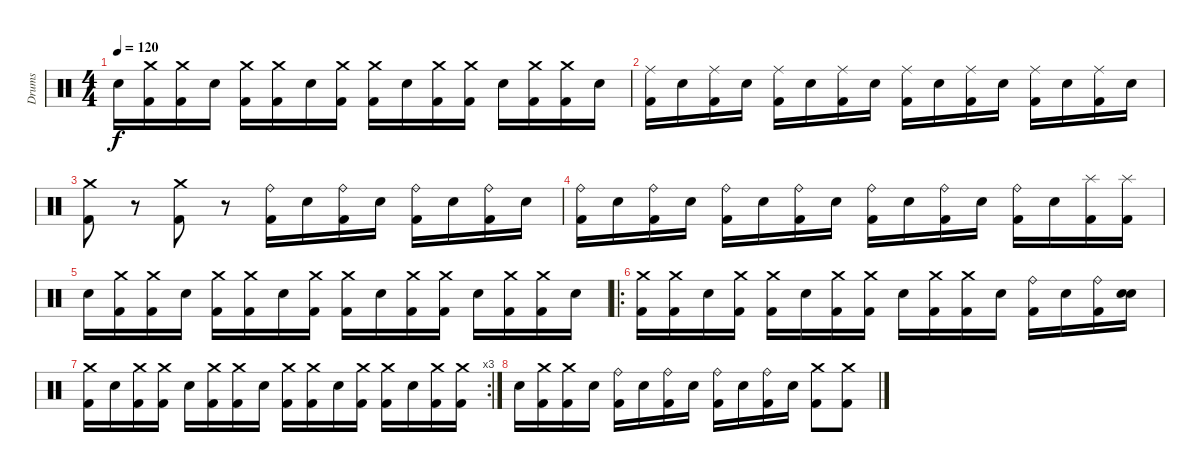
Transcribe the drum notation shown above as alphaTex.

\track ("Drums" "Drums") {instrument percussion}
\staff {score}
\articulation defaults
\ts (4 4)
\tempo 120
\clef neutral
\ks c "Snare (hit) 2".16{dy f}
("Crash medium (hit)" "Kick (hit) 2").16 ("Crash medium (hit)" "Kick (hit) 2").16 "Snare (hit) 2".16 ("Crash medium (hit)" "Kick (hit) 2").16 ("Crash medium (hit)" "Kick (hit) 2").16 "Snare (hit) 2".16 ("Crash medium (hit)" "Kick (hit) 2").16 ("Crash medium (hit)" "Kick (hit) 2").16 "Snare (hit) 2".16 ("Crash medium (hit)" "Kick (hit) 2").16 ("Crash medium (hit)" "Kick (hit) 2").16 "Snare (hit) 2".16 ("Crash medium (hit)" "Kick (hit) 2").16 ("Crash medium (hit)" "Kick (hit) 2").16 "Snare (hit) 2".16 |
("Ride (middle)" "Kick (hit) 2").16 "Electric Snare (hit)".16 ("Ride (middle)" "Kick (hit) 2").16 "Electric Snare (hit)".16 ("Ride (middle)" "Kick (hit) 2").16 "Electric Snare (hit)".16 ("Ride (middle)" "Kick (hit) 2").16 "Electric Snare (hit)".16 ("Ride (middle)" "Kick (hit) 2").16 "Electric Snare (hit)".16 ("Ride (middle)" "Kick (hit) 2").16 "Electric Snare (hit)".16 ("Ride (middle)" "Kick (hit) 2").16 "Electric Snare (hit)".16 ("Ride (middle)" "Kick (hit) 2").16 "Electric Snare (hit)".16 |
("Crash medium (hit)" "Kick (hit) 2").8 r.8 ("Crash medium (hit)" "Kick (hit) 2").8 r.8 ("Ride (bell)" "Kick (hit) 2").16 "Snare (hit) 2".16 ("Ride (bell)" "Kick (hit) 2").16 "Snare (hit) 2".16 ("Ride (bell)" "Kick (hit) 2").16 "Snare (hit) 2".16 ("Ride (bell)" "Kick (hit) 2").16 "Snare (hit) 2".16 |
("Ride (bell)" "Kick (hit) 2").16 "Snare (hit) 2".16 ("Ride (bell)" "Kick (hit) 2").16 "Snare (hit) 2".16 ("Ride (bell)" "Kick (hit) 2").16 "Snare (hit) 2".16 ("Ride (bell)" "Kick (hit) 2").16 "Snare (hit) 2".16 ("Ride (bell)" "Kick (hit) 2").16 "Snare (hit) 2".16 ("Ride (bell)" "Kick (hit) 2").16 "Snare (hit) 2".16 ("Ride (bell)" "Kick (hit) 2").16 "Snare (hit) 2".16 ("Splash (hit)" "Kick (hit) 2").16 ("Splash (hit)" "Kick (hit) 2").16 |
"Electric Snare (hit)".16 ("Crash medium (hit)" "Kick (hit) 2").16 ("Crash medium (hit)" "Kick (hit) 2").16 "Electric Snare (hit)".16 ("Crash medium (hit)" "Kick (hit) 2").16 ("Crash medium (hit)" "Kick (hit) 2").16 "Electric Snare (hit)".16 ("Crash medium (hit)" "Kick (hit) 2").16 ("Crash medium (hit)" "Kick (hit) 2").16 "Electric Snare (hit)".16 ("Crash medium (hit)" "Kick (hit) 2").16 ("Crash medium (hit)" "Kick (hit) 2").16 "Electric Snare (hit)".16 ("Crash medium (hit)" "Kick (hit) 2").16 ("Crash medium (hit)" "Kick (hit) 2").16 "Electric Snare (hit)".16 |
\ro
("Crash medium (hit)" "Kick (hit) 2").16 ("Crash medium (hit)" "Kick (hit) 2").16 "Electric Snare (hit)".16 ("Crash medium (hit)" "Kick (hit) 2").16 ("Crash medium (hit)" "Kick (hit) 2").16 "Electric Snare (hit)".16 ("Crash medium (hit)" "Kick (hit) 2").16 ("Crash medium (hit)" "Kick (hit) 2").16 "Electric Snare (hit)".16 ("Crash medium (hit)" "Kick (hit) 2").16 ("Crash medium (hit)" "Kick (hit) 2").16 "Electric Snare (hit)".16 ("Ride (bell)" "Kick (hit) 2").16 "Snare (hit) 2".16 ("Ride (bell)" "Kick (hit) 2").16 ("Snare (hit)" "Snare (hit) 2").16 |
\rc 3
("Crash medium (hit)" "Kick (hit) 2").16 "Electric Snare (hit)".16 ("Crash medium (hit)" "Kick (hit) 2").16 ("Crash medium (hit)" "Kick (hit) 2").16 "Electric Snare (hit)".16 ("Crash medium (hit)" "Kick (hit) 2").16 ("Crash medium (hit)" "Kick (hit) 2").16 "Electric Snare (hit)".16 ("Crash medium (hit)" "Kick (hit) 2").16 ("Crash medium (hit)" "Kick (hit) 2").16 "Electric Snare (hit)".16 ("Crash medium (hit)" "Kick (hit) 2").16 ("Crash medium (hit)" "Kick (hit) 2").16 "Electric Snare (hit)".16 ("Crash medium (hit)" "Kick (hit) 2").16 ("Crash medium (hit)" "Kick (hit) 2").16 |
"Electric Snare (hit)".16 ("Crash medium (hit)" "Kick (hit) 2").16 ("Crash medium (hit)" "Kick (hit) 2").16 "Electric Snare (hit)".16 ("Ride (bell)" "Kick (hit) 2").16 "Snare (hit) 2".16 ("Ride (bell)" "Kick (hit) 2").16 "Snare (hit) 2".16 ("Ride (bell)" "Kick (hit) 2").16 "Snare (hit) 2".16 ("Ride (bell)" "Kick (hit) 2").16 "Snare (hit) 2".16 ("Crash medium (hit)" "Kick (hit) 2").8 ("Crash medium (hit)" "Kick (hit) 2").8
